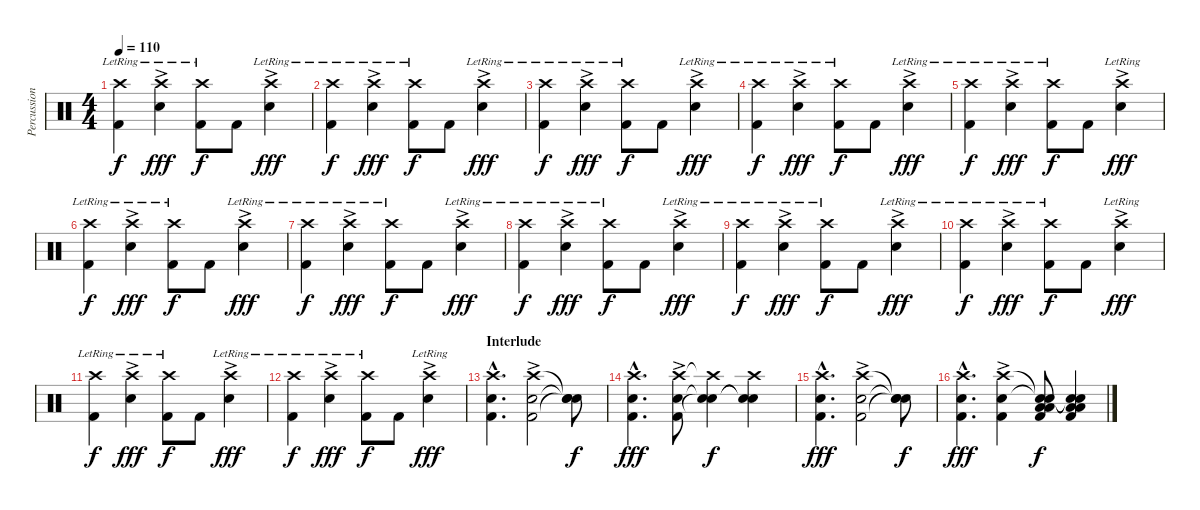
\track ("Percussion" "Percussion") {instrument percussion}
\staff {score}
\articulation defaults
\ts (4 4)
\tempo 110
\clef neutral
\ks c
("Crash high (hit)"{lr} "Kick (hit) 2").4{dy f} ("Crash high (hit)"{lr} "Snare (hit) 2"{ac}).4{dy fff} ("Crash high (hit)"{lr} "Kick (hit) 2").8{dy f} "Kick (hit) 2".8 ("Crash high (hit)"{lr} "Snare (hit) 2"{ac}).4{dy fff} |
("Crash high (hit)"{lr} "Kick (hit) 2").4{dy f} ("Crash high (hit)"{lr} "Snare (hit) 2"{ac}).4{dy fff} ("Crash high (hit)"{lr} "Kick (hit) 2").8{dy f} "Kick (hit) 2".8 ("Crash high (hit)"{lr} "Snare (hit) 2"{ac}).4{dy fff} |
("Crash high (hit)"{lr} "Kick (hit) 2").4{dy f} ("Crash high (hit)"{lr} "Snare (hit) 2"{ac}).4{dy fff} ("Crash high (hit)"{lr} "Kick (hit) 2").8{dy f} "Kick (hit) 2".8 ("Crash high (hit)"{lr} "Snare (hit) 2"{ac}).4{dy fff} |
("Crash high (hit)"{lr} "Kick (hit) 2").4{dy f} ("Crash high (hit)"{lr} "Snare (hit) 2"{ac}).4{dy fff} ("Crash high (hit)"{lr} "Kick (hit) 2").8{dy f} "Kick (hit) 2".8 ("Crash high (hit)"{lr} "Snare (hit) 2"{ac}).4{dy fff} |
("Crash high (hit)"{lr} "Kick (hit) 2").4{dy f} ("Crash high (hit)"{ac lr} "Snare (hit) 2").4{dy fff} ("Crash high (hit)"{lr} "Kick (hit) 2").8{dy f} "Kick (hit) 2".8 ("Crash high (hit)"{lr} "Snare (hit) 2"{ac}).4{dy fff} |
("Crash high (hit)"{lr} "Kick (hit) 2").4{dy f} ("Crash high (hit)"{lr} "Snare (hit) 2"{ac}).4{dy fff} ("Crash high (hit)"{lr} "Kick (hit) 2").8{dy f} "Kick (hit) 2".8 ("Crash high (hit)"{lr} "Snare (hit) 2"{ac}).4{dy fff} |
("Crash high (hit)"{lr} "Kick (hit) 2").4{dy f} ("Crash high (hit)"{lr} "Snare (hit) 2"{ac}).4{dy fff} ("Crash high (hit)"{lr} "Kick (hit) 2").8{dy f} "Kick (hit) 2".8 ("Crash high (hit)"{lr} "Snare (hit) 2"{ac}).4{dy fff} |
("Crash high (hit)"{lr} "Kick (hit) 2").4{dy f} ("Crash high (hit)"{lr} "Snare (hit) 2"{ac}).4{dy fff} ("Crash high (hit)"{lr} "Kick (hit) 2").8{dy f} "Kick (hit) 2".8 ("Crash high (hit)"{lr} "Snare (hit) 2"{ac}).4{dy fff} |
("Crash high (hit)"{lr} "Kick (hit) 2").4{dy f} ("Crash high (hit)"{lr} "Snare (hit) 2"{ac}).4{dy fff} ("Crash high (hit)"{lr} "Kick (hit) 2").8{dy f} "Kick (hit) 2".8 ("Crash high (hit)"{lr} "Snare (hit) 2"{ac}).4{dy fff} |
("Crash high (hit)"{lr} "Kick (hit) 2").4{dy f} ("Crash high (hit)"{lr} "Snare (hit) 2"{ac}).4{dy fff} ("Crash high (hit)"{lr} "Kick (hit) 2").8{dy f} "Kick (hit) 2".8 ("Crash high (hit)"{lr} "Snare (hit) 2"{ac}).4{dy fff} |
("Crash high (hit)"{lr} "Kick (hit) 2").4{dy f} ("Crash high (hit)"{lr} "Snare (hit) 2"{ac}).4{dy fff} ("Crash high (hit)"{lr} "Kick (hit) 2").8{dy f} "Kick (hit) 2".8 ("Crash high (hit)"{lr} "Snare (hit) 2"{ac}).4{dy fff} |
("Crash high (hit)"{lr} "Kick (hit) 2").4{dy f} ("Crash high (hit)"{lr} "Snare (hit) 2"{ac}).4{dy fff} ("Crash high (hit)"{lr} "Kick (hit) 2").8{dy f} "Kick (hit) 2".8 ("Crash high (hit)"{lr} "Snare (hit) 2"{ac}).4{dy fff} |
\section ("" "Interlude")
("Crash high (hit)"{hac} "Snare (hit) 2"{hac} "Kick (hit) 2"{hac}).4{d} ("Crash high (hit)"{ac} "Snare (hit) 2" "Kick (hit) 2").2 ("Snare (hit)"{t} "Snare (hit)"{t} "Snare (hit)"{t}).8{dy f} |
("Crash high (hit)"{hac} "Snare (hit) 2"{hac} "Kick (hit) 2"{hac}).4{d dy fff} ("Crash high (hit)"{ac} "Snare (hit) 2" "Kick (hit) 2").8 ("Crash high (hit)"{t} "Snare (hit)"{t} "Snare (hit)"{t}).4{dy f} ("Crash high (hit)" "Snare (hit)"{t} "Snare (hit)"{t}).4 |
("Crash high (hit)"{hac} "Snare (hit) 2"{hac} "Kick (hit) 2"{hac}).4{d dy fff} ("Crash high (hit)"{ac} "Snare (hit) 2" "Kick (hit) 2").2 ("Snare (hit)"{t} "Snare (hit)"{t} "Snare (hit)"{t}).8{dy f} |
("Crash high (hit)"{hac} "Snare (hit) 2"{hac} "Kick (hit) 2"{hac}).4{d dy fff} ("Crash high (hit)"{ac} "Snare (hit) 2" "Kick (hit) 2").4 ("Snare (hit)"{t} "Snare (hit)"{t} "Low Tom (hit)" "Low Floor Tom (hit)" "Kick (hit) 2").8{dy f} ("Snare (hit)"{t} "Snare (hit)"{t} "Low Tom (hit)" "Low Floor Tom (hit)" "Kick (hit) 2").4
